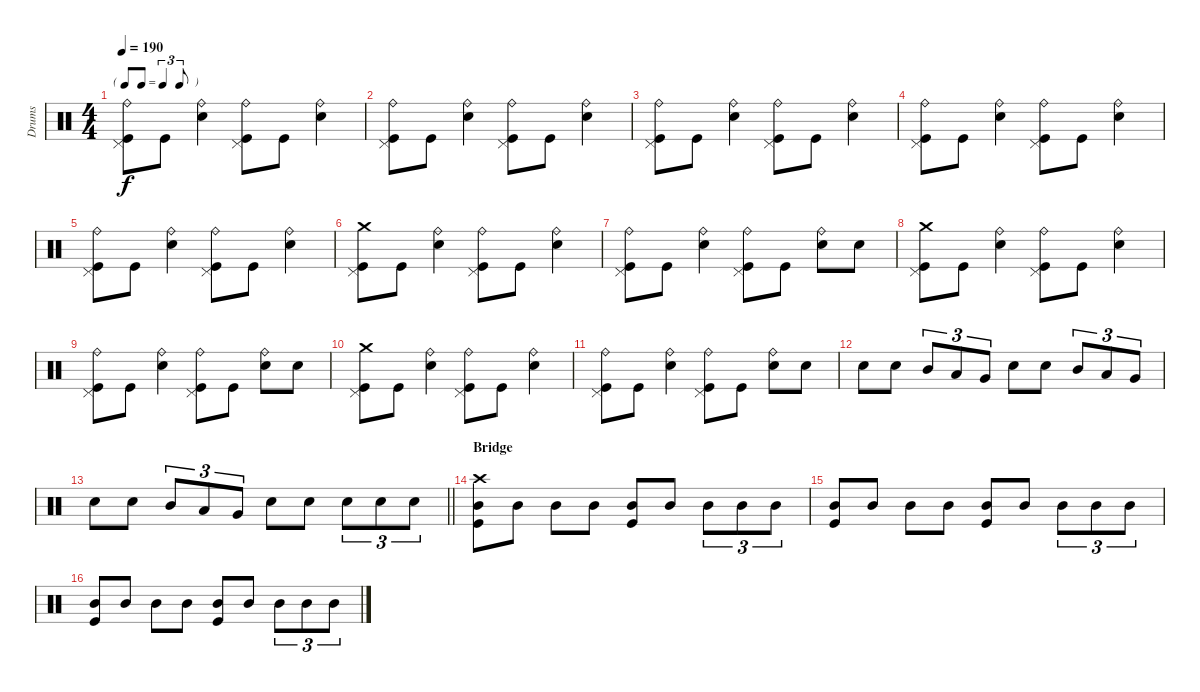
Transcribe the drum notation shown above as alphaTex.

\track ("Drums" "Drums") {instrument percussion}
\staff {score}
\articulation defaults
\ts (4 4)
\tf triplet8th
\tempo 190
\clef neutral
\ks c
("Ride (bell)" "Pedal Hi-Hat (hit)" "Kick (hit)").8{dy f} "Kick (hit)".8 ("Ride (bell)" "Electric Snare (hit)").4 ("Ride (bell)" "Pedal Hi-Hat (hit)" "Kick (hit)").8 "Kick (hit)".8 ("Ride (bell)" "Electric Snare (hit)").4 |
("Ride (bell)" "Pedal Hi-Hat (hit)" "Kick (hit)").8 "Kick (hit)".8 ("Ride (bell)" "Electric Snare (hit)").4 ("Ride (bell)" "Pedal Hi-Hat (hit)" "Kick (hit)").8 "Kick (hit)".8 ("Ride (bell)" "Electric Snare (hit)").4 |
("Ride (bell)" "Pedal Hi-Hat (hit)" "Kick (hit)").8 "Kick (hit)".8 ("Ride (bell)" "Electric Snare (hit)").4 ("Ride (bell)" "Pedal Hi-Hat (hit)" "Kick (hit)").8 "Kick (hit)".8 ("Ride (bell)" "Electric Snare (hit)").4 |
("Ride (bell)" "Pedal Hi-Hat (hit)" "Kick (hit)").8 "Kick (hit)".8 ("Ride (bell)" "Electric Snare (hit)").4 ("Ride (bell)" "Pedal Hi-Hat (hit)" "Kick (hit)").8 "Kick (hit)".8 ("Ride (bell)" "Electric Snare (hit)").4 |
("Ride (bell)" "Pedal Hi-Hat (hit)" "Kick (hit)").8 "Kick (hit)".8 ("Ride (bell)" "Electric Snare (hit)").4 ("Ride (bell)" "Pedal Hi-Hat (hit)" "Kick (hit)").8 "Kick (hit)".8 ("Ride (bell)" "Electric Snare (hit)").4 |
("Crash medium (hit)" "Pedal Hi-Hat (hit)" "Kick (hit)").8 "Kick (hit)".8 ("Ride (bell)" "Electric Snare (hit)").4 ("Ride (bell)" "Pedal Hi-Hat (hit)" "Kick (hit)").8 "Kick (hit)".8 ("Ride (bell)" "Electric Snare (hit)").4 |
("Ride (bell)" "Pedal Hi-Hat (hit)" "Kick (hit)").8 "Kick (hit)".8 ("Ride (bell)" "Electric Snare (hit)").4 ("Ride (bell)" "Pedal Hi-Hat (hit)" "Kick (hit)").8 "Kick (hit)".8 ("Ride (bell)" "Electric Snare (hit)").8 "Electric Snare (hit)".8 |
("Crash medium (hit)" "Pedal Hi-Hat (hit)" "Kick (hit)").8 "Kick (hit)".8 ("Ride (bell)" "Electric Snare (hit)").4 ("Ride (bell)" "Pedal Hi-Hat (hit)" "Kick (hit)").8 "Kick (hit)".8 ("Ride (bell)" "Electric Snare (hit)").4 |
("Ride (bell)" "Pedal Hi-Hat (hit)" "Kick (hit)").8 "Kick (hit)".8 ("Ride (bell)" "Electric Snare (hit)").4 ("Ride (bell)" "Pedal Hi-Hat (hit)" "Kick (hit)").8 "Kick (hit)".8 ("Ride (bell)" "Electric Snare (hit)").8 "Electric Snare (hit)".8 |
("Crash medium (hit)" "Pedal Hi-Hat (hit)" "Kick (hit)").8 "Kick (hit)".8 ("Ride (bell)" "Electric Snare (hit)").4 ("Ride (bell)" "Pedal Hi-Hat (hit)" "Kick (hit)").8 "Kick (hit)".8 ("Ride (bell)" "Electric Snare (hit)").4 |
("Ride (bell)" "Pedal Hi-Hat (hit)" "Kick (hit)").8 "Kick (hit)".8 ("Ride (bell)" "Electric Snare (hit)").4 ("Ride (bell)" "Pedal Hi-Hat (hit)" "Kick (hit)").8 "Kick (hit)".8 ("Ride (bell)" "Electric Snare (hit)").8 "Electric Snare (hit)".8 |
"Electric Snare (hit)".8 "Electric Snare (hit)".8 "Mid Tom (hit)".8{tu (3 2)} "Low Tom (hit)".8{tu (3 2)} "Very Low Tom (hit)".8{tu (3 2)} "Electric Snare (hit)".8 "Electric Snare (hit)".8 "Mid Tom (hit)".8{tu (3 2)} "Low Tom (hit)".8{tu (3 2)} "Very Low Tom (hit)".8{tu (3 2)} |
\barLineRight lightlight "Electric Snare (hit)".8 "Electric Snare (hit)".8 "Mid Tom (hit)".8{tu (3 2)} "Low Tom (hit)".8{tu (3 2)} "Very Low Tom (hit)".8{tu (3 2)} "Electric Snare (hit)".8 "Electric Snare (hit)".8 "Electric Snare (hit)".8{tu (3 2)} "Electric Snare (hit)".8{tu (3 2)} "Electric Snare (hit)".8{tu (3 2)}
|
\section ("" "Bridge")
("Crash high (hit)" "Mid Tom (hit)" "Kick (hit)").8 "Mid Tom (hit)".8 "Mid Tom (hit)".8 "Mid Tom (hit)".8 ("Mid Tom (hit)" "Kick (hit)").8 "Mid Tom (hit)".8 "Mid Tom (hit)".8{tu (3 2)} "Mid Tom (hit)".8{tu (3 2)} "Mid Tom (hit)".8{tu (3 2)} |
("Mid Tom (hit)" "Kick (hit)").8 "Mid Tom (hit)".8 "Mid Tom (hit)".8 "Mid Tom (hit)".8 ("Mid Tom (hit)" "Kick (hit)").8 "Mid Tom (hit)".8 "Mid Tom (hit)".8{tu (3 2)} "Mid Tom (hit)".8{tu (3 2)} "Mid Tom (hit)".8{tu (3 2)} |
("Mid Tom (hit)" "Kick (hit)").8 "Mid Tom (hit)".8 "Mid Tom (hit)".8 "Mid Tom (hit)".8 ("Mid Tom (hit)" "Kick (hit)").8 "Mid Tom (hit)".8 "Mid Tom (hit)".8{tu (3 2)} "Mid Tom (hit)".8{tu (3 2)} "Mid Tom (hit)".8{tu (3 2)}
